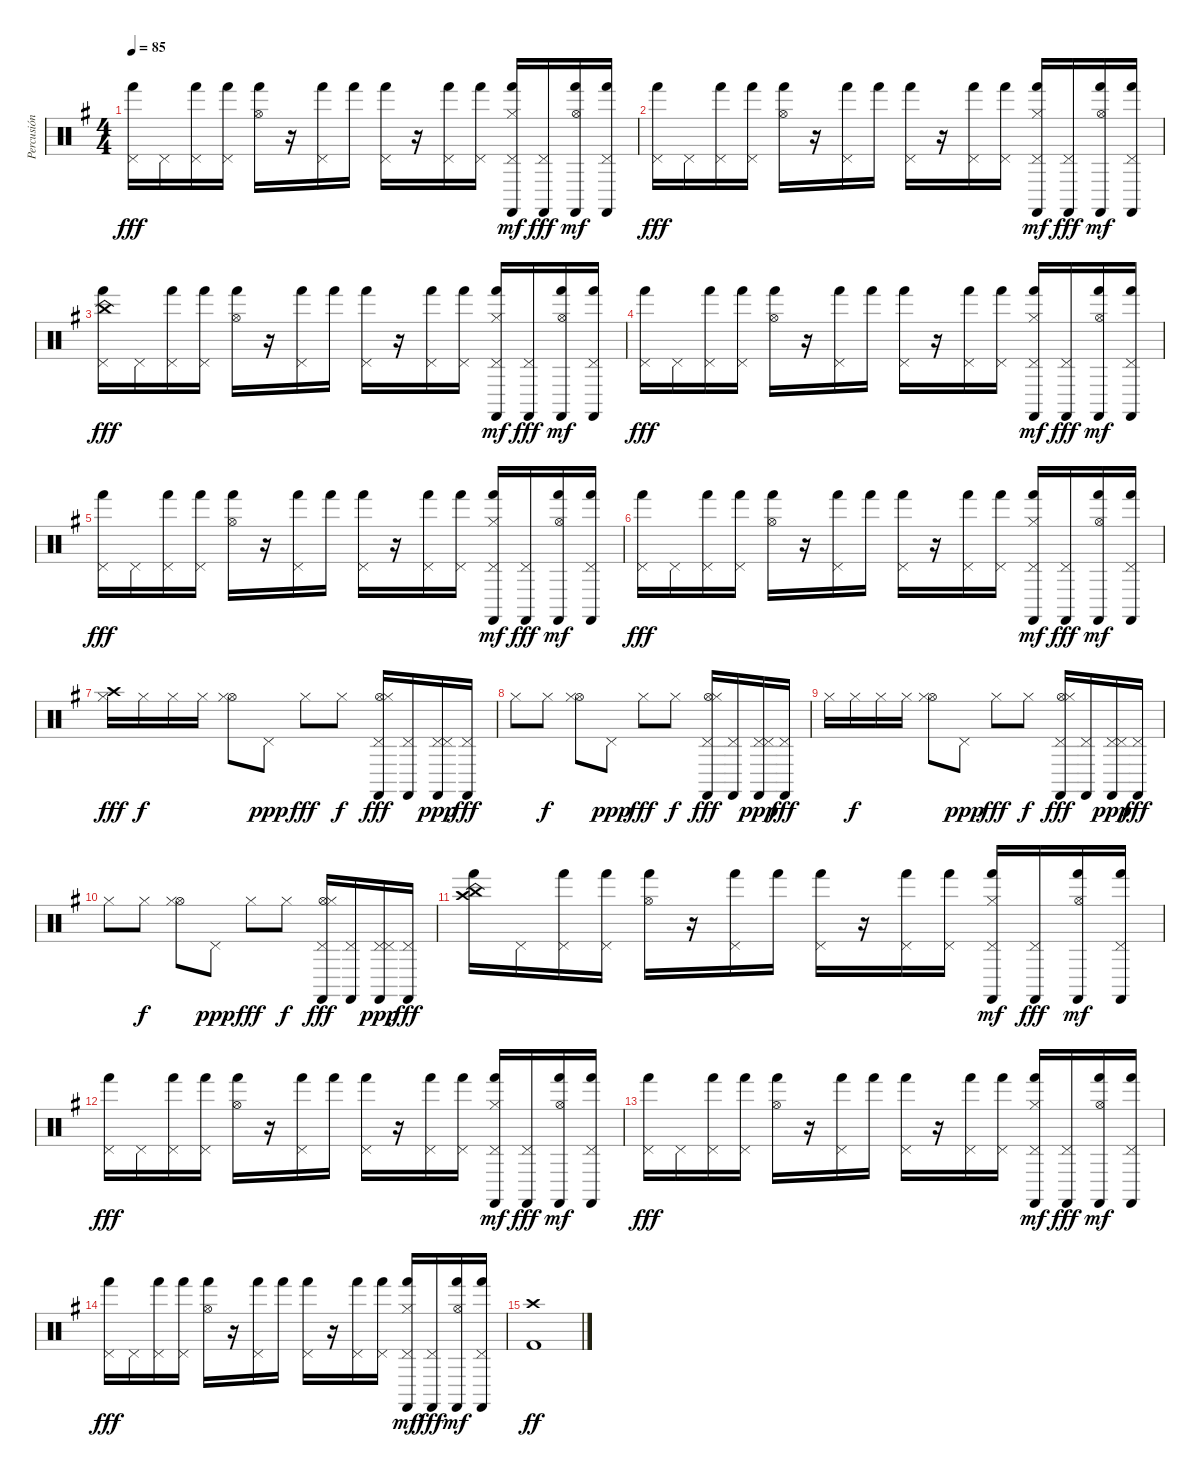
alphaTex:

\track ("Percusión" "Percusión") {instrument percussion}
\staff {score}
\articulation defaults
\ts (4 4)
\tempo 85
\clef neutral
\ks g
("Pedal Hi-Hat (hit)" "Hand (hit)").16{dy fff} "Pedal Hi-Hat (hit)".16 ("Pedal Hi-Hat (hit)" "Hand (hit)").16 ("Pedal Hi-Hat (hit)" "Hand (hit)").16 ("Hi-Hat (open)" "Hand (hit)").16 r.16 ("Pedal Hi-Hat (hit)" "Hand (hit)").16 "Hand (hit)".16 ("Pedal Hi-Hat (hit)" "Hand (hit)").16 r.16 ("Pedal Hi-Hat (hit)" "Hand (hit)").16 ("Pedal Hi-Hat (hit)" "Hand (hit)").16 ("Pedal Hi-Hat (hit)" "Castanets (hit)" "Hand (hit)" "Hi-Hat (closed)").16{dy mf} ("Pedal Hi-Hat (hit)" "Castanets (hit)").16{dy fff} ("Hi-Hat (open)" "Castanets (hit)" "Hand (hit)").16{dy mf} ("Pedal Hi-Hat (hit)" "Castanets (hit)" "Hand (hit)").16 |
("Pedal Hi-Hat (hit)" "Hand (hit)").16{dy fff} "Pedal Hi-Hat (hit)".16 ("Pedal Hi-Hat (hit)" "Hand (hit)").16 ("Pedal Hi-Hat (hit)" "Hand (hit)").16 ("Hi-Hat (open)" "Hand (hit)").16 r.16 ("Pedal Hi-Hat (hit)" "Hand (hit)").16 "Hand (hit)".16 ("Pedal Hi-Hat (hit)" "Hand (hit)").16 r.16 ("Pedal Hi-Hat (hit)" "Hand (hit)").16 ("Pedal Hi-Hat (hit)" "Hand (hit)").16 ("Pedal Hi-Hat (hit)" "Castanets (hit)" "Hand (hit)" "Hi-Hat (closed)").16{dy mf} ("Pedal Hi-Hat (hit)" "Castanets (hit)").16{dy fff} ("Hi-Hat (open)" "Castanets (hit)" "Hand (hit)").16{dy mf} ("Pedal Hi-Hat (hit)" "Castanets (hit)" "Hand (hit)").16 |
("Pedal Hi-Hat (hit)" "China (hit)" "Hand (hit)").16{dy fff} "Pedal Hi-Hat (hit)".16 ("Pedal Hi-Hat (hit)" "Hand (hit)").16 ("Pedal Hi-Hat (hit)" "Hand (hit)").16 ("Hi-Hat (open)" "Hand (hit)").16 r.16 ("Pedal Hi-Hat (hit)" "Hand (hit)").16 "Hand (hit)".16 ("Pedal Hi-Hat (hit)" "Hand (hit)").16 r.16 ("Pedal Hi-Hat (hit)" "Hand (hit)").16 ("Pedal Hi-Hat (hit)" "Hand (hit)").16 ("Pedal Hi-Hat (hit)" "Castanets (hit)" "Hand (hit)" "Hi-Hat (closed)").16{dy mf} ("Pedal Hi-Hat (hit)" "Castanets (hit)").16{dy fff} ("Hi-Hat (open)" "Castanets (hit)" "Hand (hit)").16{dy mf} ("Pedal Hi-Hat (hit)" "Castanets (hit)" "Hand (hit)").16 |
("Pedal Hi-Hat (hit)" "Hand (hit)").16{dy fff} "Pedal Hi-Hat (hit)".16 ("Pedal Hi-Hat (hit)" "Hand (hit)").16 ("Pedal Hi-Hat (hit)" "Hand (hit)").16 ("Hi-Hat (open)" "Hand (hit)").16 r.16 ("Pedal Hi-Hat (hit)" "Hand (hit)").16 "Hand (hit)".16 ("Pedal Hi-Hat (hit)" "Hand (hit)").16 r.16 ("Pedal Hi-Hat (hit)" "Hand (hit)").16 ("Pedal Hi-Hat (hit)" "Hand (hit)").16 ("Pedal Hi-Hat (hit)" "Castanets (hit)" "Hand (hit)" "Hi-Hat (closed)").16{dy mf} ("Pedal Hi-Hat (hit)" "Castanets (hit)").16{dy fff} ("Hi-Hat (open)" "Castanets (hit)" "Hand (hit)").16{dy mf} ("Pedal Hi-Hat (hit)" "Castanets (hit)" "Hand (hit)").16 |
("Pedal Hi-Hat (hit)" "Hand (hit)").16{dy fff} "Pedal Hi-Hat (hit)".16 ("Pedal Hi-Hat (hit)" "Hand (hit)").16 ("Pedal Hi-Hat (hit)" "Hand (hit)").16 ("Hi-Hat (open)" "Hand (hit)").16 r.16 ("Pedal Hi-Hat (hit)" "Hand (hit)").16 "Hand (hit)".16 ("Pedal Hi-Hat (hit)" "Hand (hit)").16 r.16 ("Pedal Hi-Hat (hit)" "Hand (hit)").16 ("Pedal Hi-Hat (hit)" "Hand (hit)").16 ("Pedal Hi-Hat (hit)" "Castanets (hit)" "Hand (hit)" "Hi-Hat (closed)").16{dy mf} ("Pedal Hi-Hat (hit)" "Castanets (hit)").16{dy fff} ("Hi-Hat (open)" "Castanets (hit)" "Hand (hit)").16{dy mf} ("Pedal Hi-Hat (hit)" "Castanets (hit)" "Hand (hit)").16 |
("Pedal Hi-Hat (hit)" "Hand (hit)").16{dy fff} "Pedal Hi-Hat (hit)".16 ("Pedal Hi-Hat (hit)" "Hand (hit)").16 ("Pedal Hi-Hat (hit)" "Hand (hit)").16 ("Hi-Hat (open)" "Hand (hit)").16 r.16 ("Pedal Hi-Hat (hit)" "Hand (hit)").16 "Hand (hit)".16 ("Pedal Hi-Hat (hit)" "Hand (hit)").16 r.16 ("Pedal Hi-Hat (hit)" "Hand (hit)").16 ("Pedal Hi-Hat (hit)" "Hand (hit)").16 ("Pedal Hi-Hat (hit)" "Castanets (hit)" "Hand (hit)" "Hi-Hat (closed)").16{dy mf} ("Pedal Hi-Hat (hit)" "Castanets (hit)").16{dy fff} ("Hi-Hat (open)" "Castanets (hit)" "Hand (hit)").16{dy mf} ("Pedal Hi-Hat (hit)" "Castanets (hit)" "Hand (hit)").16 |
("Crash high (hit)" "Hi-Hat (closed)").16{dy fff} "Hi-Hat (closed)".16{dy f} "Hi-Hat (closed)".16 "Hi-Hat (closed)".16 ("Hi-Hat (open)" "Hi-Hat (closed)").8 "Pedal Hi-Hat (hit)".8{dy ppp} "Hi-Hat (closed)".8{dy fff} "Hi-Hat (closed)".8{dy f} ("Pedal Hi-Hat (hit)" "Castanets (hit)" "Hi-Hat (open)" "Hi-Hat (closed)").16{dy fff} ("Pedal Hi-Hat (hit)" "Castanets (hit)").16 ("Pedal Hi-Hat (hit)" "Castanets (hit)" "Pedal Hi-Hat (hit)").16{dy ppp} ("Pedal Hi-Hat (hit)" "Castanets (hit)").16{dy fff} |
"Hi-Hat (closed)".8 "Hi-Hat (closed)".8{dy f} ("Hi-Hat (open)" "Hi-Hat (closed)").8 "Pedal Hi-Hat (hit)".8{dy ppp} "Hi-Hat (closed)".8{dy fff} "Hi-Hat (closed)".8{dy f} ("Pedal Hi-Hat (hit)" "Castanets (hit)" "Hi-Hat (open)" "Hi-Hat (closed)").16{dy fff} ("Pedal Hi-Hat (hit)" "Castanets (hit)").16 ("Pedal Hi-Hat (hit)" "Castanets (hit)" "Pedal Hi-Hat (hit)").16{dy ppp} ("Pedal Hi-Hat (hit)" "Castanets (hit)").16{dy fff} |
"Hi-Hat (closed)".16 "Hi-Hat (closed)".16{dy f} "Hi-Hat (closed)".16 "Hi-Hat (closed)".16 ("Hi-Hat (open)" "Hi-Hat (closed)").8 "Pedal Hi-Hat (hit)".8{dy ppp} "Hi-Hat (closed)".8{dy fff} "Hi-Hat (closed)".8{dy f} ("Pedal Hi-Hat (hit)" "Castanets (hit)" "Hi-Hat (open)" "Hi-Hat (closed)").16{dy fff} ("Pedal Hi-Hat (hit)" "Castanets (hit)").16 ("Pedal Hi-Hat (hit)" "Castanets (hit)" "Pedal Hi-Hat (hit)").16{dy ppp} ("Pedal Hi-Hat (hit)" "Castanets (hit)").16{dy fff} |
"Hi-Hat (closed)".8 "Hi-Hat (closed)".8{dy f} ("Hi-Hat (open)" "Hi-Hat (closed)").8 "Pedal Hi-Hat (hit)".8{dy ppp} "Hi-Hat (closed)".8{dy fff} "Hi-Hat (closed)".8{dy f} ("Pedal Hi-Hat (hit)" "Castanets (hit)" "Hi-Hat (open)" "Hi-Hat (closed)").16{dy fff} ("Pedal Hi-Hat (hit)" "Castanets (hit)").16 ("Pedal Hi-Hat (hit)" "Castanets (hit)" "Pedal Hi-Hat (hit)").16{dy ppp} ("Pedal Hi-Hat (hit)" "Castanets (hit)").16{dy fff} |
("Crash high (hit)" "China (hit)" "Hand (hit)").16 "Pedal Hi-Hat (hit)".16 ("Pedal Hi-Hat (hit)" "Hand (hit)").16 ("Pedal Hi-Hat (hit)" "Hand (hit)").16 ("Hi-Hat (open)" "Hand (hit)").16 r.16 ("Pedal Hi-Hat (hit)" "Hand (hit)").16 "Hand (hit)".16 ("Pedal Hi-Hat (hit)" "Hand (hit)").16 r.16 ("Pedal Hi-Hat (hit)" "Hand (hit)").16 ("Pedal Hi-Hat (hit)" "Hand (hit)").16 ("Pedal Hi-Hat (hit)" "Castanets (hit)" "Hand (hit)" "Hi-Hat (closed)").16{dy mf} ("Pedal Hi-Hat (hit)" "Castanets (hit)").16{dy fff} ("Hi-Hat (open)" "Castanets (hit)" "Hand (hit)").16{dy mf} ("Pedal Hi-Hat (hit)" "Castanets (hit)" "Hand (hit)").16 |
("Pedal Hi-Hat (hit)" "Hand (hit)").16{dy fff} "Pedal Hi-Hat (hit)".16 ("Pedal Hi-Hat (hit)" "Hand (hit)").16 ("Pedal Hi-Hat (hit)" "Hand (hit)").16 ("Hi-Hat (open)" "Hand (hit)").16 r.16 ("Pedal Hi-Hat (hit)" "Hand (hit)").16 "Hand (hit)".16 ("Pedal Hi-Hat (hit)" "Hand (hit)").16 r.16 ("Pedal Hi-Hat (hit)" "Hand (hit)").16 ("Pedal Hi-Hat (hit)" "Hand (hit)").16 ("Pedal Hi-Hat (hit)" "Castanets (hit)" "Hand (hit)" "Hi-Hat (closed)").16{dy mf} ("Pedal Hi-Hat (hit)" "Castanets (hit)").16{dy fff} ("Hi-Hat (open)" "Castanets (hit)" "Hand (hit)").16{dy mf} ("Pedal Hi-Hat (hit)" "Castanets (hit)" "Hand (hit)").16 |
("Pedal Hi-Hat (hit)" "Hand (hit)").16{dy fff} "Pedal Hi-Hat (hit)".16 ("Pedal Hi-Hat (hit)" "Hand (hit)").16 ("Pedal Hi-Hat (hit)" "Hand (hit)").16 ("Hi-Hat (open)" "Hand (hit)").16 r.16 ("Pedal Hi-Hat (hit)" "Hand (hit)").16 "Hand (hit)".16 ("Pedal Hi-Hat (hit)" "Hand (hit)").16 r.16 ("Pedal Hi-Hat (hit)" "Hand (hit)").16 ("Pedal Hi-Hat (hit)" "Hand (hit)").16 ("Pedal Hi-Hat (hit)" "Castanets (hit)" "Hand (hit)" "Hi-Hat (closed)").16{dy mf} ("Pedal Hi-Hat (hit)" "Castanets (hit)").16{dy fff} ("Hi-Hat (open)" "Castanets (hit)" "Hand (hit)").16{dy mf} ("Pedal Hi-Hat (hit)" "Castanets (hit)" "Hand (hit)").16 |
("Pedal Hi-Hat (hit)" "Hand (hit)").16{dy fff} "Pedal Hi-Hat (hit)".16 ("Pedal Hi-Hat (hit)" "Hand (hit)").16 ("Pedal Hi-Hat (hit)" "Hand (hit)").16 ("Hi-Hat (open)" "Hand (hit)").16 r.16 ("Pedal Hi-Hat (hit)" "Hand (hit)").16 "Hand (hit)".16 ("Pedal Hi-Hat (hit)" "Hand (hit)").16 r.16 ("Pedal Hi-Hat (hit)" "Hand (hit)").16 ("Pedal Hi-Hat (hit)" "Hand (hit)").16 ("Pedal Hi-Hat (hit)" "Castanets (hit)" "Hand (hit)" "Hi-Hat (closed)").16{dy mf} ("Pedal Hi-Hat (hit)" "Castanets (hit)").16{dy fff} ("Hi-Hat (open)" "Castanets (hit)" "Hand (hit)").16{dy mf} ("Pedal Hi-Hat (hit)" "Castanets (hit)" "Hand (hit)").16 |
("Crash high (hit)" "Kick (hit) 2").1{dy ff}
